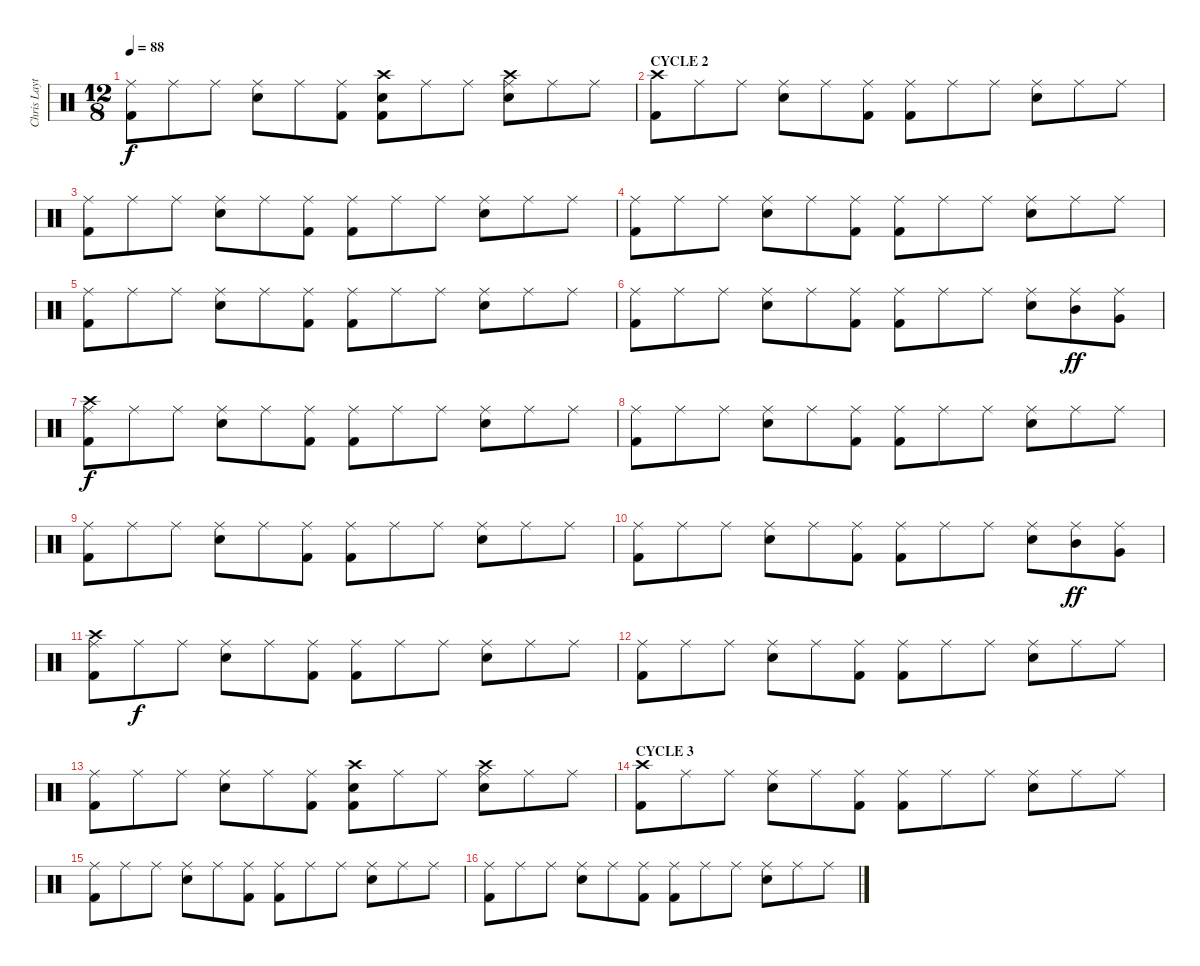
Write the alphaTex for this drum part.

\track ("Chris Layton" "Chris Layt") {instrument percussion}
\staff {score}
\articulation defaults
\ts (12 8)
\tempo 88
\clef neutral
\ks c
("Ride (middle)" "Kick (hit) 2").8{dy f} "Ride (middle)".8 "Ride (middle)".8 ("Ride (middle)" "Snare (hit) 2").8 "Ride (middle)".8 ("Ride (middle)" "Kick (hit) 2").8 ("Crash high (hit)" "Snare (hit) 2" "Kick (hit) 2").8 "Ride (middle)".8 "Ride (middle)".8 ("Ride (middle)" "Crash high (hit)" "Snare (hit) 2").8 "Ride (middle)".8 "Ride (middle)".8 |
\section ("" "CYCLE 2")
("Crash high (hit)" "Kick (hit) 2").8 "Ride (middle)".8 "Ride (middle)".8 ("Ride (middle)" "Snare (hit) 2").8 "Ride (middle)".8 ("Ride (middle)" "Kick (hit) 2").8 ("Ride (middle)" "Kick (hit) 2").8 "Ride (middle)".8 "Ride (middle)".8 ("Ride (middle)" "Snare (hit) 2").8 "Ride (middle)".8 "Ride (middle)".8 |
("Ride (middle)" "Kick (hit) 2").8 "Ride (middle)".8 "Ride (middle)".8 ("Ride (middle)" "Snare (hit) 2").8 "Ride (middle)".8 ("Ride (middle)" "Kick (hit) 2").8 ("Ride (middle)" "Kick (hit) 2").8 "Ride (middle)".8 "Ride (middle)".8 ("Ride (middle)" "Snare (hit) 2").8 "Ride (middle)".8 "Ride (middle)".8 |
("Ride (middle)" "Kick (hit) 2").8 "Ride (middle)".8 "Ride (middle)".8 ("Ride (middle)" "Snare (hit) 2").8 "Ride (middle)".8 ("Ride (middle)" "Kick (hit) 2").8 ("Ride (middle)" "Kick (hit) 2").8 "Ride (middle)".8 "Ride (middle)".8 ("Ride (middle)" "Snare (hit) 2").8 "Ride (middle)".8 "Ride (middle)".8 |
("Ride (middle)" "Kick (hit) 2").8 "Ride (middle)".8 "Ride (middle)".8 ("Ride (middle)" "Snare (hit) 2").8 "Ride (middle)".8 ("Ride (middle)" "Kick (hit) 2").8 ("Ride (middle)" "Kick (hit) 2").8 "Ride (middle)".8 "Ride (middle)".8 ("Ride (middle)" "Snare (hit) 2").8 "Ride (middle)".8 "Ride (middle)".8 |
("Ride (middle)" "Kick (hit) 2").8 "Ride (middle)".8 "Ride (middle)".8 ("Ride (middle)" "Snare (hit) 2").8 "Ride (middle)".8 ("Ride (middle)" "Kick (hit) 2").8 ("Ride (middle)" "Kick (hit) 2").8 "Ride (middle)".8 "Ride (middle)".8 ("Ride (middle)" "Snare (hit) 2").8 ("Ride (middle)" "Mid Tom (hit)").8{dy ff} ("Ride (middle)" "Very Low Tom (hit)").8 |
("Ride (middle)" "Crash high (hit)" "Kick (hit) 2").8{dy f} "Ride (middle)".8 "Ride (middle)".8 ("Ride (middle)" "Snare (hit) 2").8 "Ride (middle)".8 ("Ride (middle)" "Kick (hit) 2").8 ("Ride (middle)" "Kick (hit) 2").8 "Ride (middle)".8 "Ride (middle)".8 ("Ride (middle)" "Snare (hit) 2").8 "Ride (middle)".8 "Ride (middle)".8 |
("Ride (middle)" "Kick (hit) 2").8 "Ride (middle)".8 "Ride (middle)".8 ("Ride (middle)" "Snare (hit) 2").8 "Ride (middle)".8 ("Ride (middle)" "Kick (hit) 2").8 ("Ride (middle)" "Kick (hit) 2").8 "Ride (middle)".8 "Ride (middle)".8 ("Ride (middle)" "Snare (hit) 2").8 "Ride (middle)".8 "Ride (middle)".8 |
("Ride (middle)" "Kick (hit) 2").8 "Ride (middle)".8 "Ride (middle)".8 ("Ride (middle)" "Snare (hit) 2").8 "Ride (middle)".8 ("Ride (middle)" "Kick (hit) 2").8 ("Ride (middle)" "Kick (hit) 2").8 "Ride (middle)".8 "Ride (middle)".8 ("Ride (middle)" "Snare (hit) 2").8 "Ride (middle)".8 "Ride (middle)".8 |
("Ride (middle)" "Kick (hit) 2").8 "Ride (middle)".8 "Ride (middle)".8 ("Ride (middle)" "Snare (hit) 2").8 "Ride (middle)".8 ("Ride (middle)" "Kick (hit) 2").8 ("Ride (middle)" "Kick (hit) 2").8 "Ride (middle)".8 "Ride (middle)".8 ("Ride (middle)" "Snare (hit) 2").8 ("Ride (middle)" "Mid Tom (hit)").8{dy ff} ("Ride (middle)" "Very Low Tom (hit)").8 |
("Ride (middle)" "Crash high (hit)" "Kick (hit) 2").8 "Ride (middle)".8{dy f} "Ride (middle)".8 ("Ride (middle)" "Snare (hit) 2").8 "Ride (middle)".8 ("Ride (middle)" "Kick (hit) 2").8 ("Ride (middle)" "Kick (hit) 2").8 "Ride (middle)".8 "Ride (middle)".8 ("Ride (middle)" "Snare (hit) 2").8 "Ride (middle)".8 "Ride (middle)".8 |
("Ride (middle)" "Kick (hit) 2").8 "Ride (middle)".8 "Ride (middle)".8 ("Ride (middle)" "Snare (hit) 2").8 "Ride (middle)".8 ("Ride (middle)" "Kick (hit) 2").8 ("Ride (middle)" "Kick (hit) 2").8 "Ride (middle)".8 "Ride (middle)".8 ("Ride (middle)" "Snare (hit) 2").8 "Ride (middle)".8 "Ride (middle)".8 |
("Ride (middle)" "Kick (hit) 2").8 "Ride (middle)".8 "Ride (middle)".8 ("Ride (middle)" "Snare (hit) 2").8 "Ride (middle)".8 ("Ride (middle)" "Kick (hit) 2").8 ("Crash high (hit)" "Snare (hit) 2" "Kick (hit) 2").8 "Ride (middle)".8 "Ride (middle)".8 ("Ride (middle)" "Crash high (hit)" "Snare (hit) 2").8 "Ride (middle)".8 "Ride (middle)".8 |
\section ("" "CYCLE 3")
("Crash high (hit)" "Kick (hit) 2").8 "Ride (middle)".8 "Ride (middle)".8 ("Ride (middle)" "Snare (hit) 2").8 "Ride (middle)".8 ("Ride (middle)" "Kick (hit) 2").8 ("Ride (middle)" "Kick (hit) 2").8 "Ride (middle)".8 "Ride (middle)".8 ("Ride (middle)" "Snare (hit) 2").8 "Ride (middle)".8 "Ride (middle)".8 |
("Ride (middle)" "Kick (hit) 2").8 "Ride (middle)".8 "Ride (middle)".8 ("Ride (middle)" "Snare (hit) 2").8 "Ride (middle)".8 ("Ride (middle)" "Kick (hit) 2").8 ("Ride (middle)" "Kick (hit) 2").8 "Ride (middle)".8 "Ride (middle)".8 ("Ride (middle)" "Snare (hit) 2").8 "Ride (middle)".8 "Ride (middle)".8 |
("Ride (middle)" "Kick (hit) 2").8 "Ride (middle)".8 "Ride (middle)".8 ("Ride (middle)" "Snare (hit) 2").8 "Ride (middle)".8 ("Ride (middle)" "Kick (hit) 2").8 ("Ride (middle)" "Kick (hit) 2").8 "Ride (middle)".8 "Ride (middle)".8 ("Ride (middle)" "Snare (hit) 2").8 "Ride (middle)".8 "Ride (middle)".8
